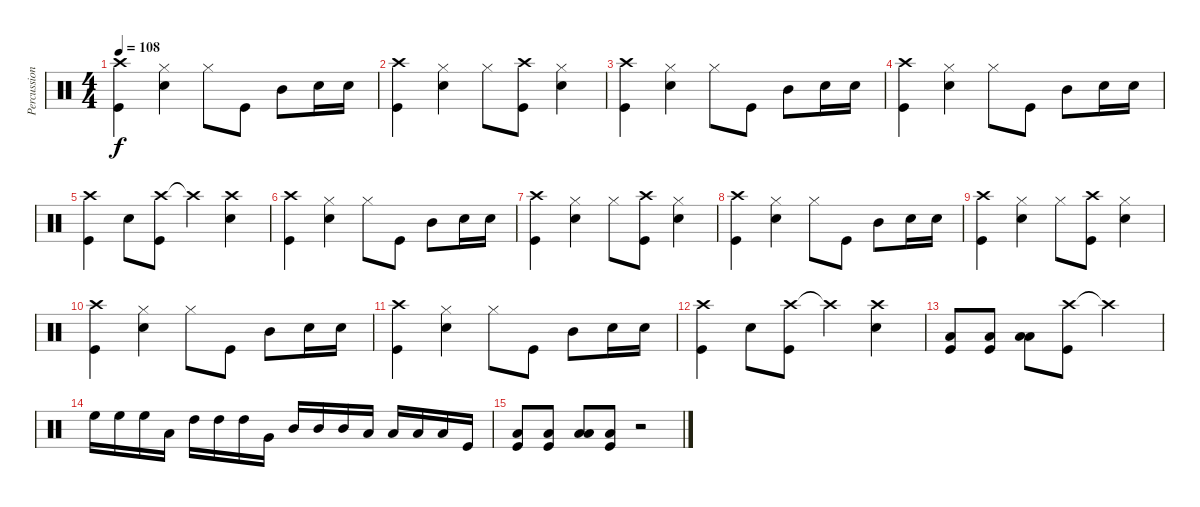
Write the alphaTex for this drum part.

\track ("Percussion" "Percussion") {instrument percussion}
\staff {score}
\articulation defaults
\ts (4 4)
\tempo 108
\clef neutral
\ks c
("Kick (hit)" "Crash high (hit)").4{dy f} ("Snare (hit) 2" "Hi-Hat (closed)").4 "Hi-Hat (closed)".8 "Kick (hit)".8 "Mid Tom (hit)".8 "Snare (hit) 2".16 "Snare (hit) 2".16 |
("Kick (hit)" "Crash high (hit)").4 ("Snare (hit) 2" "Hi-Hat (closed)").4 "Hi-Hat (closed)".8 ("Crash high (hit)" "Kick (hit)").8 ("Snare (hit) 2" "Hi-Hat (closed)").4 |
("Kick (hit)" "Crash high (hit)").4 ("Snare (hit) 2" "Hi-Hat (closed)").4 "Hi-Hat (closed)".8 "Kick (hit)".8 "Mid Tom (hit)".8 "Snare (hit) 2".16 "Snare (hit) 2".16 |
("Kick (hit)" "Crash high (hit)").4 ("Snare (hit) 2" "Hi-Hat (closed)").4 "Hi-Hat (closed)".8 "Kick (hit)".8 "Mid Tom (hit)".8 "Snare (hit) 2".16 "Snare (hit) 2".16 |
("Crash high (hit)" "Kick (hit)").4 "Snare (hit) 2".8 ("Crash high (hit)" "Kick (hit)").8 "Crash high (hit)"{t}.4 ("Crash high (hit)" "Snare (hit) 2").4 |
("Kick (hit)" "Crash high (hit)").4 ("Snare (hit) 2" "Hi-Hat (closed)").4 "Hi-Hat (closed)".8 "Kick (hit)".8 "Mid Tom (hit)".8 "Snare (hit) 2".16 "Snare (hit) 2".16 |
("Kick (hit)" "Crash high (hit)").4 ("Snare (hit) 2" "Hi-Hat (closed)").4 "Hi-Hat (closed)".8 ("Crash high (hit)" "Kick (hit)").8 ("Snare (hit) 2" "Hi-Hat (closed)").4 |
("Kick (hit)" "Crash high (hit)").4 ("Snare (hit) 2" "Hi-Hat (closed)").4 "Hi-Hat (closed)".8 "Kick (hit)".8 "Mid Tom (hit)".8 "Snare (hit) 2".16 "Snare (hit) 2".16 |
("Kick (hit)" "Crash high (hit)").4 ("Snare (hit) 2" "Hi-Hat (closed)").4 "Hi-Hat (closed)".8 ("Crash high (hit)" "Kick (hit)").8 ("Snare (hit) 2" "Hi-Hat (closed)").4 |
("Kick (hit)" "Crash high (hit)").4 ("Snare (hit) 2" "Hi-Hat (closed)").4 "Hi-Hat (closed)".8 "Kick (hit)".8 "Mid Tom (hit)".8 "Snare (hit) 2".16 "Snare (hit) 2".16 |
("Kick (hit)" "Crash high (hit)").4 ("Snare (hit) 2" "Hi-Hat (closed)").4 "Hi-Hat (closed)".8 "Kick (hit)".8 "Mid Tom (hit)".8 "Snare (hit) 2".16 "Snare (hit) 2".16 |
("Crash high (hit)" "Kick (hit)").4 "Snare (hit) 2".8 ("Crash high (hit)" "Kick (hit)").8 "Crash high (hit)"{t}.4 ("Crash high (hit)" "Snare (hit) 2").4 |
("Low Tom (hit)" "Kick (hit)").8 ("Low Tom (hit)" "Kick (hit)").8 ("Low Tom (hit)" "Low Floor Tom (hit)").8 ("Crash high (hit)" "Kick (hit)").8 "Crash high (hit)"{t}.2 |
"High Floor Tom (hit)".16 "High Floor Tom (hit)".16 "High Floor Tom (hit)".16 "Low Tom (hit)".16 "High Tom (hit)".16 "High Tom (hit)".16 "High Tom (hit)".16 "Very Low Tom (hit)".16 "Mid Tom (hit)".16 "Mid Tom (hit)".16 "Mid Tom (hit)".16 "Low Floor Tom (hit)".16 "Low Tom (hit)".16 "Low Tom (hit)".16 "Low Tom (hit)".16 "Kick (hit)".16 |
("Low Tom (hit)" "Kick (hit)").8 ("Low Tom (hit)" "Kick (hit)").8 ("Low Tom (hit)" "Low Floor Tom (hit)").8 ("Low Tom (hit)" "Kick (hit)").8 r.2
